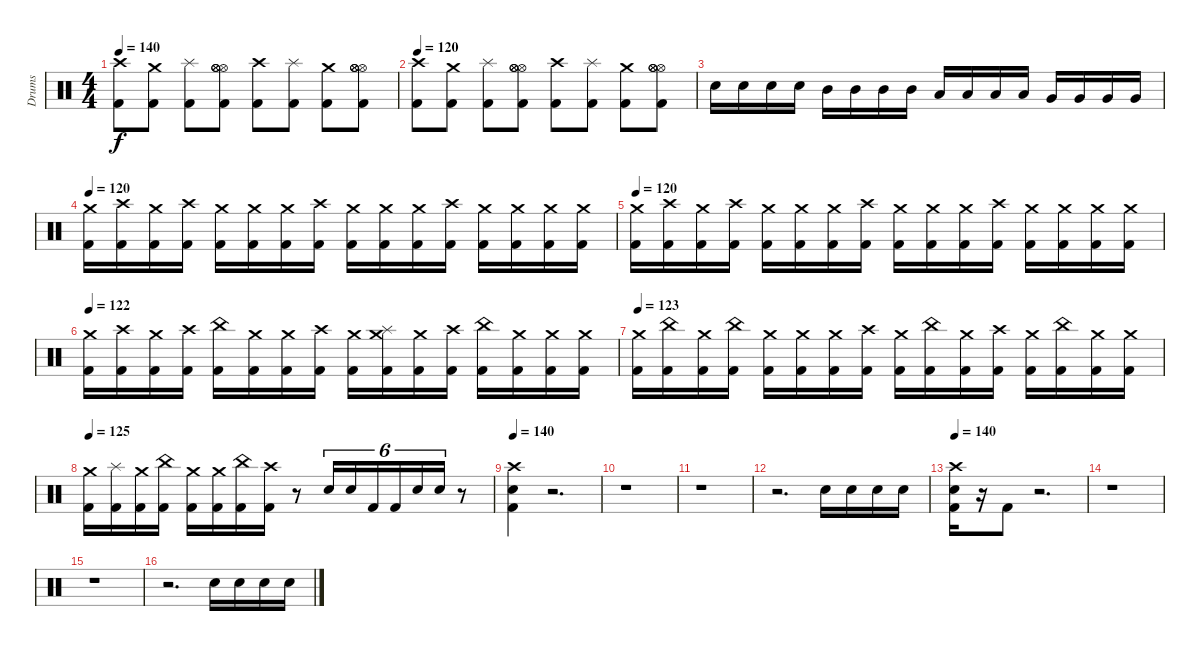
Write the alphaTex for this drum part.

\track ("Drums" "Drums") {instrument percussion}
\staff {score}
\articulation defaults
\ts (4 4)
\tempo 140
\tempo 120
\tempo 140
\clef neutral
\ks c
("Crash high (hit)" "Kick (hit) 2").8{dy f} ("Crash medium (hit)" "Kick (hit) 2").8 ("Splash (hit)" "Kick (hit) 2").8 ("Hi-Hat (open)" "Hi-Hat (open)" "Hi-Hat (open)" "Hi-Hat (open)" "Kick (hit) 2").8 ("Crash high (hit)" "Kick (hit) 2").8 ("Splash (hit)" "Kick (hit) 2").8 ("Crash medium (hit)" "Kick (hit) 2").8 ("Hi-Hat (open)" "Hi-Hat (open)" "Hi-Hat (open)" "Hi-Hat (open)" "Kick (hit) 2").8 |
\tempo 120
("Crash high (hit)" "Kick (hit) 2").8 ("Crash medium (hit)" "Kick (hit) 2").8 ("Splash (hit)" "Kick (hit) 2").8 ("Hi-Hat (open)" "Hi-Hat (open)" "Hi-Hat (open)" "Hi-Hat (open)" "Kick (hit) 2").8 ("Crash high (hit)" "Kick (hit) 2").8 ("Splash (hit)" "Kick (hit) 2").8 ("Crash medium (hit)" "Kick (hit) 2").8 ("Hi-Hat (open)" "Hi-Hat (open)" "Hi-Hat (open)" "Hi-Hat (open)" "Kick (hit) 2").8 |
"Electric Snare (hit)".16 "Electric Snare (hit)".16 "Electric Snare (hit)".16 "Electric Snare (hit)".16 "Mid Tom (hit)".16 "Mid Tom (hit)".16 "Mid Tom (hit)".16 "Mid Tom (hit)".16 "Low Tom (hit)".16 "Low Tom (hit)".16 "Low Tom (hit)".16 "Low Tom (hit)".16 "Very Low Tom (hit)".16 "Very Low Tom (hit)".16 "Very Low Tom (hit)".16 "Very Low Tom (hit)".16 |
\tempo 120
("Crash medium (hit)" "Kick (hit) 2").16 ("Crash high (hit)" "Kick (hit) 2").16 ("Crash medium (hit)" "Kick (hit) 2").16 ("Crash high (hit)" "Kick (hit) 2").16 ("Crash medium (hit)" "Kick (hit) 2").16 ("Crash medium (hit)" "Kick (hit) 2").16 ("Crash medium (hit)" "Kick (hit) 2").16 ("Crash high (hit)" "Kick (hit) 2").16 ("Crash medium (hit)" "Kick (hit) 2").16 ("Crash medium (hit)" "Kick (hit) 2").16 ("Crash medium (hit)" "Kick (hit) 2").16 ("Crash high (hit)" "Kick (hit) 2").16 ("Crash medium (hit)" "Kick (hit) 2").16 ("Crash medium (hit)" "Kick (hit) 2").16 ("Crash medium (hit)" "Kick (hit) 2").16 ("Crash medium (hit)" "Kick (hit) 2").16 |
\tempo 120
("Crash medium (hit)" "Kick (hit) 2").16 ("Crash high (hit)" "Kick (hit) 2").16 ("Crash medium (hit)" "Kick (hit) 2").16 ("Crash high (hit)" "Kick (hit) 2").16 ("Crash medium (hit)" "Kick (hit) 2").16 ("Crash medium (hit)" "Kick (hit) 2").16 ("Crash medium (hit)" "Kick (hit) 2").16 ("Crash high (hit)" "Kick (hit) 2").16 ("Crash medium (hit)" "Kick (hit) 2").16 ("Crash medium (hit)" "Kick (hit) 2").16 ("Crash medium (hit)" "Kick (hit) 2").16 ("Crash high (hit)" "Kick (hit) 2").16 ("Crash medium (hit)" "Kick (hit) 2").16 ("Crash medium (hit)" "Kick (hit) 2").16 ("Crash medium (hit)" "Kick (hit) 2").16 ("Crash medium (hit)" "Kick (hit) 2").16 |
\tempo 122
("Crash medium (hit)" "Kick (hit) 2").16 ("Crash high (hit)" "Kick (hit) 2").16 ("Crash medium (hit)" "Kick (hit) 2").16 ("Crash high (hit)" "Kick (hit) 2").16 ("China (hit)" "Kick (hit) 2").16 ("Crash medium (hit)" "Kick (hit) 2").16 ("Crash medium (hit)" "Kick (hit) 2").16 ("Crash high (hit)" "Kick (hit) 2").16 ("Crash medium (hit)" "Kick (hit) 2").16 ("Splash (hit)" "Crash medium (hit)" "Kick (hit) 2").16 ("Crash medium (hit)" "Kick (hit) 2").16 ("Crash high (hit)" "Kick (hit) 2").16 ("China (hit)" "Kick (hit) 2").16 ("Crash medium (hit)" "Kick (hit) 2").16 ("Crash medium (hit)" "Kick (hit) 2").16 ("Crash medium (hit)" "Kick (hit) 2").16 |
\tempo 123
("Crash medium (hit)" "Kick (hit) 2").16 ("China (hit)" "Kick (hit) 2").16 ("Crash medium (hit)" "Kick (hit) 2").16 ("China (hit)" "Kick (hit) 2").16 ("Crash medium (hit)" "Kick (hit) 2").16 ("Crash medium (hit)" "Kick (hit) 2").16 ("Crash medium (hit)" "Kick (hit) 2").16 ("Crash high (hit)" "Kick (hit) 2").16 ("Crash medium (hit)" "Kick (hit) 2").16 ("China (hit)" "Kick (hit) 2").16 ("Crash medium (hit)" "Kick (hit) 2").16 ("Crash high (hit)" "Kick (hit) 2").16 ("Crash medium (hit)" "Kick (hit) 2").16 ("China (hit)" "Kick (hit) 2").16 ("Crash medium (hit)" "Kick (hit) 2").16 ("Crash medium (hit)" "Kick (hit) 2").16 |
\tempo 125
("Crash medium (hit)" "Kick (hit) 2").16 ("Splash (hit)" "Kick (hit) 2").16 ("Crash medium (hit)" "Kick (hit) 2").16 ("China (hit)" "Kick (hit) 2").16 ("Crash medium (hit)" "Kick (hit) 2").16 ("Crash medium (hit)" "Kick (hit) 2").16 ("China (hit)" "Kick (hit) 2").16 ("Crash high (hit)" "Kick (hit) 2").16 r.8 "Electric Snare (hit)".16{tu (6 4)} "Electric Snare (hit)".16{tu (6 4)} "Kick (hit) 2".16{tu (6 4)} "Kick (hit) 2".16{tu (6 4)} "Electric Snare (hit)".16{tu (6 4)} "Electric Snare (hit)".16{tu (6 4)} r.8 |
\tempo 140
("Crash high (hit)" "Electric Snare (hit)" "Kick (hit) 2").4 r.2{d} |
r.1 |
r.1 |
r.2{d} "Electric Snare (hit)".16 "Electric Snare (hit)".16 "Electric Snare (hit)".16 "Electric Snare (hit)".16 |
\tempo 140
("Electric Snare (hit)" "Crash high (hit)" "Kick (hit) 2").16 r.16 "Kick (hit) 2".8 r.2{d} |
r.1 |
r.1 |
r.2{d} "Electric Snare (hit)".16 "Electric Snare (hit)".16 "Electric Snare (hit)".16 "Electric Snare (hit)".16
